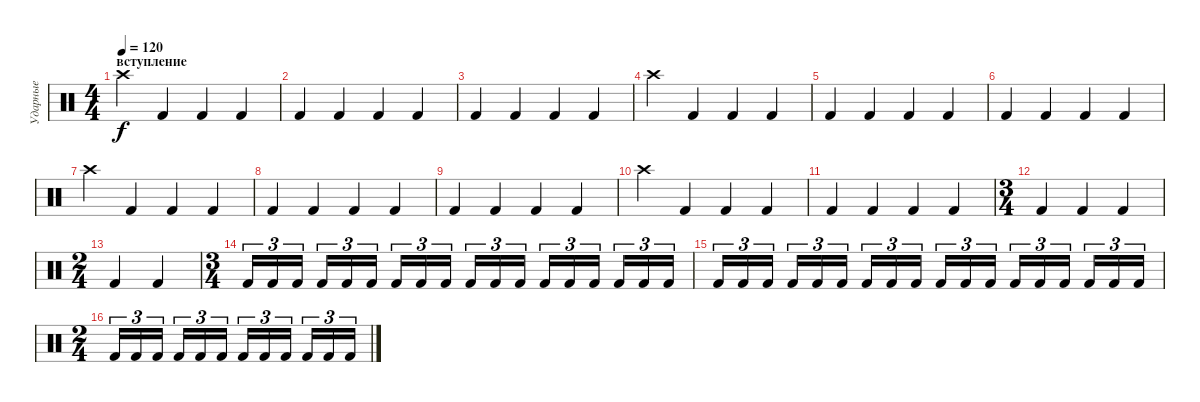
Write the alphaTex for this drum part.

\track ("Ударные" "Ударные") {instrument percussion}
\staff {score}
\articulation defaults
\ts (4 4)
\section ("" "вступление")
\tempo 120
\clef neutral
\ks c "Crash high (hit)".4{dy f} "Kick (hit) 2".4 "Kick (hit) 2".4 "Kick (hit) 2".4
|
"Kick (hit) 2".4 "Kick (hit) 2".4 "Kick (hit) 2".4 "Kick (hit) 2".4 |
"Kick (hit) 2".4 "Kick (hit) 2".4 "Kick (hit) 2".4 "Kick (hit) 2".4 |
"Crash high (hit)".4 "Kick (hit) 2".4 "Kick (hit) 2".4 "Kick (hit) 2".4 |
"Kick (hit) 2".4 "Kick (hit) 2".4 "Kick (hit) 2".4 "Kick (hit) 2".4 |
"Kick (hit) 2".4 "Kick (hit) 2".4 "Kick (hit) 2".4 "Kick (hit) 2".4 |
"Crash high (hit)".4 "Kick (hit) 2".4 "Kick (hit) 2".4 "Kick (hit) 2".4 |
"Kick (hit) 2".4 "Kick (hit) 2".4 "Kick (hit) 2".4 "Kick (hit) 2".4 |
"Kick (hit) 2".4 "Kick (hit) 2".4 "Kick (hit) 2".4 "Kick (hit) 2".4 |
"Crash high (hit)".4 "Kick (hit) 2".4 "Kick (hit) 2".4 "Kick (hit) 2".4 |
"Kick (hit) 2".4 "Kick (hit) 2".4 "Kick (hit) 2".4 "Kick (hit) 2".4 |
\ts (3 4)
"Kick (hit) 2".4 "Kick (hit) 2".4 "Kick (hit) 2".4 |
\ts (2 4)
"Kick (hit) 2".4 "Kick (hit) 2".4 |
\ts (3 4)
"Kick (hit) 2".16{tu (3 2)} "Kick (hit) 2".16{tu (3 2)} "Kick (hit) 2".16{tu (3 2)} "Kick (hit) 2".16{tu (3 2)} "Kick (hit) 2".16{tu (3 2)} "Kick (hit) 2".16{tu (3 2)} "Kick (hit) 2".16{tu (3 2)} "Kick (hit) 2".16{tu (3 2)} "Kick (hit) 2".16{tu (3 2)} "Kick (hit) 2".16{tu (3 2)} "Kick (hit) 2".16{tu (3 2)} "Kick (hit) 2".16{tu (3 2)} "Kick (hit) 2".16{tu (3 2)} "Kick (hit) 2".16{tu (3 2)} "Kick (hit) 2".16{tu (3 2)} "Kick (hit) 2".16{tu (3 2)} "Kick (hit) 2".16{tu (3 2)} "Kick (hit) 2".16{tu (3 2)} |
"Kick (hit) 2".16{tu (3 2)} "Kick (hit) 2".16{tu (3 2)} "Kick (hit) 2".16{tu (3 2)} "Kick (hit) 2".16{tu (3 2)} "Kick (hit) 2".16{tu (3 2)} "Kick (hit) 2".16{tu (3 2)} "Kick (hit) 2".16{tu (3 2)} "Kick (hit) 2".16{tu (3 2)} "Kick (hit) 2".16{tu (3 2)} "Kick (hit) 2".16{tu (3 2)} "Kick (hit) 2".16{tu (3 2)} "Kick (hit) 2".16{tu (3 2)} "Kick (hit) 2".16{tu (3 2)} "Kick (hit) 2".16{tu (3 2)} "Kick (hit) 2".16{tu (3 2)} "Kick (hit) 2".16{tu (3 2)} "Kick (hit) 2".16{tu (3 2)} "Kick (hit) 2".16{tu (3 2)} |
\ts (2 4)
"Kick (hit) 2".16{tu (3 2)} "Kick (hit) 2".16{tu (3 2)} "Kick (hit) 2".16{tu (3 2)} "Kick (hit) 2".16{tu (3 2)} "Kick (hit) 2".16{tu (3 2)} "Kick (hit) 2".16{tu (3 2)} "Kick (hit) 2".16{tu (3 2)} "Kick (hit) 2".16{tu (3 2)} "Kick (hit) 2".16{tu (3 2)} "Kick (hit) 2".16{tu (3 2)} "Kick (hit) 2".16{tu (3 2)} "Kick (hit) 2".16{tu (3 2)}
